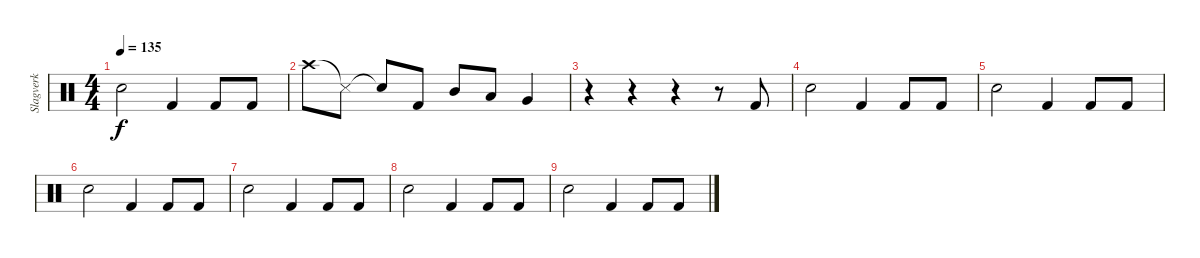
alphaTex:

\track ("Slagverk" "Slagverk") {instrument percussion}
\staff {score}
\articulation defaults
\ts (4 4)
\tempo 135
\clef neutral
\ks c "Snare (hit) 2".2{dy f} "Kick (hit) 2".4 "Kick (hit) 2".8 "Kick (hit) 2".8
|
"Crash high (hit)".8 "Snare (side stick) 3"{t}.8 "Snare (hit)"{t}.8 "Kick (hit) 2".8 "Mid Tom (hit)".8 "Low Tom (hit)".8 "Very Low Tom (hit)".4 |
r.4 r.4 r.4 r.8 "Kick (hit) 2".8 |
"Snare (hit) 2".2 "Kick (hit) 2".4 "Kick (hit) 2".8 "Kick (hit) 2".8 |
"Snare (hit) 2".2 "Kick (hit) 2".4 "Kick (hit) 2".8 "Kick (hit) 2".8 |
"Snare (hit) 2".2 "Kick (hit) 2".4 "Kick (hit) 2".8 "Kick (hit) 2".8 |
"Snare (hit) 2".2 "Kick (hit) 2".4 "Kick (hit) 2".8 "Kick (hit) 2".8 |
"Snare (hit) 2".2 "Kick (hit) 2".4 "Kick (hit) 2".8 "Kick (hit) 2".8 |
"Snare (hit) 2".2 "Kick (hit) 2".4 "Kick (hit) 2".8 "Kick (hit) 2".8
